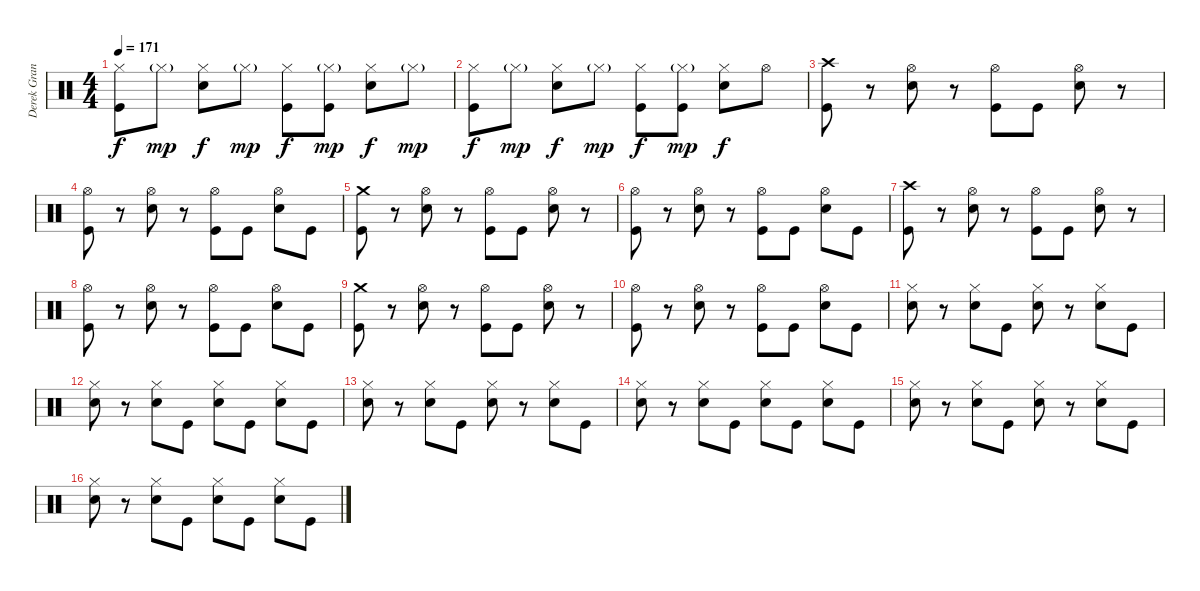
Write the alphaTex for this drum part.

\track ("Derek Grant" "Derek Gran") {instrument percussion}
\staff {score}
\articulation defaults
\ts (4 4)
\tempo 171
\clef neutral
\ks c
("Hi-Hat (closed)" "Kick (hit)").8{dy f} "Hi-Hat (closed)"{g}.8{dy mp} ("Hi-Hat (closed)" "Electric Snare (hit)").8{dy f} "Hi-Hat (closed)"{g}.8{dy mp} ("Hi-Hat (closed)" "Kick (hit)").8{dy f} ("Hi-Hat (closed)"{g} "Kick (hit)").8{dy mp} ("Hi-Hat (closed)" "Electric Snare (hit)").8{dy f} "Hi-Hat (closed)"{g}.8{dy mp} |
("Hi-Hat (closed)" "Kick (hit)").8{dy f} "Hi-Hat (closed)"{g}.8{dy mp} ("Hi-Hat (closed)" "Electric Snare (hit)").8{dy f} "Hi-Hat (closed)"{g}.8{dy mp} ("Hi-Hat (closed)" "Kick (hit)").8{dy f} ("Hi-Hat (closed)"{g} "Kick (hit)").8{dy mp} ("Hi-Hat (closed)" "Electric Snare (hit)").8{dy f} "Hi-Hat (open)".8 |
("Crash high (hit)" "Kick (hit)").8 r.8 ("Hi-Hat (open)" "Electric Snare (hit)").8 r.8 ("Hi-Hat (open)" "Kick (hit)").8 "Kick (hit)".8 ("Hi-Hat (open)" "Electric Snare (hit)").8 r.8 |
("Hi-Hat (open)" "Kick (hit)").8 r.8 ("Hi-Hat (open)" "Electric Snare (hit)").8 r.8 ("Hi-Hat (open)" "Kick (hit)").8 "Kick (hit)".8 ("Hi-Hat (open)" "Electric Snare (hit)").8 "Kick (hit)".8 |
("Crash medium (hit)" "Kick (hit)").8 r.8 ("Hi-Hat (open)" "Electric Snare (hit)").8 r.8 ("Hi-Hat (open)" "Kick (hit)").8 "Kick (hit)".8 ("Hi-Hat (open)" "Electric Snare (hit)").8 r.8 |
("Hi-Hat (open)" "Kick (hit)").8 r.8 ("Hi-Hat (open)" "Electric Snare (hit)").8 r.8 ("Hi-Hat (open)" "Kick (hit)").8 "Kick (hit)".8 ("Hi-Hat (open)" "Electric Snare (hit)").8 "Kick (hit)".8 |
("Crash high (hit)" "Kick (hit)").8 r.8 ("Hi-Hat (open)" "Electric Snare (hit)").8 r.8 ("Hi-Hat (open)" "Kick (hit)").8 "Kick (hit)".8 ("Hi-Hat (open)" "Electric Snare (hit)").8 r.8 |
("Hi-Hat (open)" "Kick (hit)").8 r.8 ("Hi-Hat (open)" "Electric Snare (hit)").8 r.8 ("Hi-Hat (open)" "Kick (hit)").8 "Kick (hit)".8 ("Hi-Hat (open)" "Electric Snare (hit)").8 "Kick (hit)".8 |
("Crash medium (hit)" "Kick (hit)").8 r.8 ("Hi-Hat (open)" "Electric Snare (hit)").8 r.8 ("Hi-Hat (open)" "Kick (hit)").8 "Kick (hit)".8 ("Hi-Hat (open)" "Electric Snare (hit)").8 r.8 |
("Hi-Hat (open)" "Kick (hit)").8 r.8 ("Hi-Hat (open)" "Electric Snare (hit)").8 r.8 ("Hi-Hat (open)" "Kick (hit)").8 "Kick (hit)".8 ("Hi-Hat (open)" "Electric Snare (hit)").8 "Kick (hit)".8 |
("Hi-Hat (closed)" "Electric Snare (hit)").8 r.8 ("Hi-Hat (closed)" "Electric Snare (hit)").8 "Kick (hit)".8 ("Hi-Hat (closed)" "Electric Snare (hit)").8 r.8 ("Hi-Hat (closed)" "Electric Snare (hit)").8 "Kick (hit)".8 |
("Hi-Hat (closed)" "Electric Snare (hit)").8 r.8 ("Hi-Hat (closed)" "Electric Snare (hit)").8 "Kick (hit)".8 ("Hi-Hat (closed)" "Electric Snare (hit)").8 "Kick (hit)".8 ("Hi-Hat (closed)" "Electric Snare (hit)").8 "Kick (hit)".8 |
("Hi-Hat (closed)" "Electric Snare (hit)").8 r.8 ("Hi-Hat (closed)" "Electric Snare (hit)").8 "Kick (hit)".8 ("Hi-Hat (closed)" "Electric Snare (hit)").8 r.8 ("Hi-Hat (closed)" "Electric Snare (hit)").8 "Kick (hit)".8 |
("Hi-Hat (closed)" "Electric Snare (hit)").8 r.8 ("Hi-Hat (closed)" "Electric Snare (hit)").8 "Kick (hit)".8 ("Hi-Hat (closed)" "Electric Snare (hit)").8 "Kick (hit)".8 ("Hi-Hat (closed)" "Electric Snare (hit)").8 "Kick (hit)".8 |
("Hi-Hat (closed)" "Electric Snare (hit)").8 r.8 ("Hi-Hat (closed)" "Electric Snare (hit)").8 "Kick (hit)".8 ("Hi-Hat (closed)" "Electric Snare (hit)").8 r.8 ("Hi-Hat (closed)" "Electric Snare (hit)").8 "Kick (hit)".8 |
("Hi-Hat (closed)" "Electric Snare (hit)").8 r.8 ("Hi-Hat (closed)" "Electric Snare (hit)").8 "Kick (hit)".8 ("Hi-Hat (closed)" "Electric Snare (hit)").8 "Kick (hit)".8 ("Hi-Hat (closed)" "Electric Snare (hit)").8 "Kick (hit)".8
